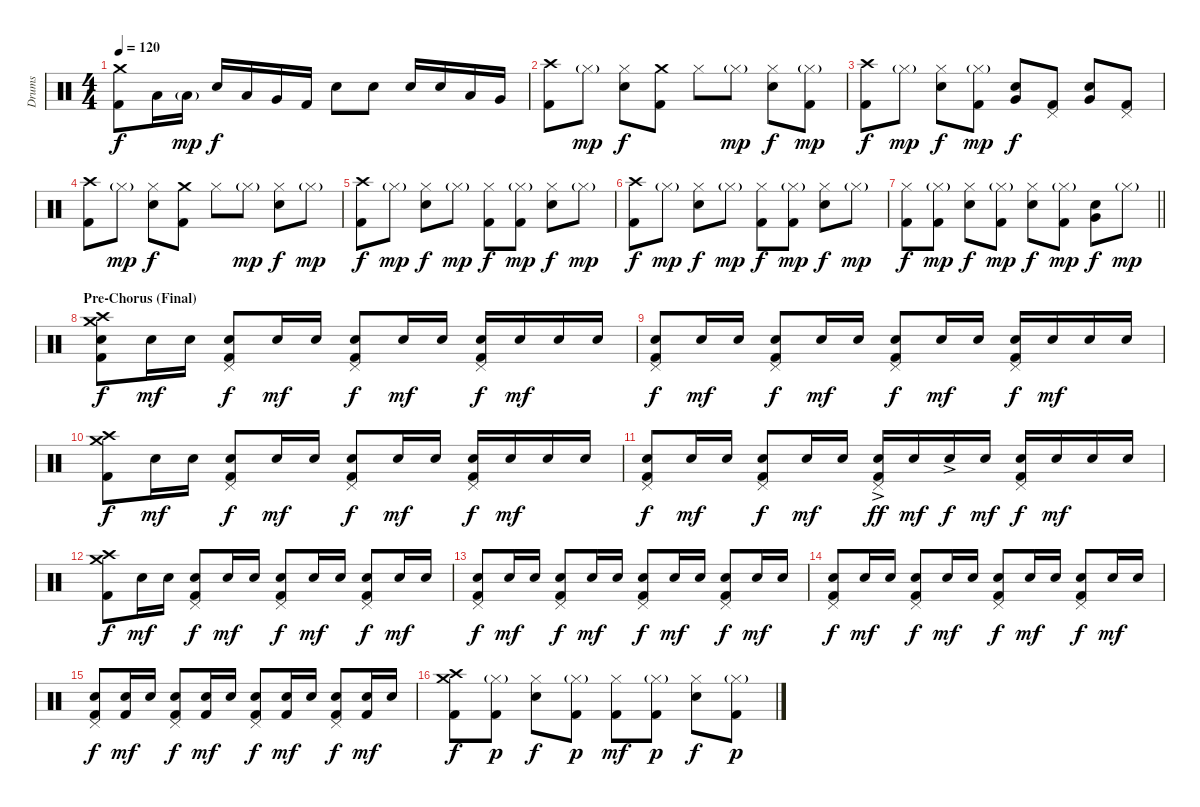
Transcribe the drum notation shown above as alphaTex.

\track ("Drums" "Drums") {instrument percussion}
\staff {score}
\articulation defaults
\ts (4 4)
\tempo 120
\clef neutral
\ks c
("Crash medium (hit)" "Kick (hit) 2").8{dy f} "Low Tom (hit)".16 "Low Tom (hit)"{g}.16{dy mp} "Electric Snare (hit)".16{dy f} "Low Tom (hit)".16 "Very Low Tom (hit)".16 "Kick (hit) 2".16 "Electric Snare (hit)".8 "Electric Snare (hit)".8 "Electric Snare (hit)".16 "Electric Snare (hit)".16 "Low Tom (hit)".16 "Very Low Tom (hit)".16 |
("Crash high (hit)" "Kick (hit) 2").8 "Hi-Hat (closed)"{g}.8{dy mp} ("Hi-Hat (closed)" "Electric Snare (hit)").8{dy f} ("Crash medium (hit)" "Kick (hit) 2").8 "Hi-Hat (closed)".8 "Hi-Hat (closed)"{g}.8{dy mp} ("Hi-Hat (closed)" "Electric Snare (hit)").8{dy f} ("Hi-Hat (closed)"{g} "Kick (hit) 2").8{dy mp} |
("Crash high (hit)" "Kick (hit) 2").8{dy f} "Hi-Hat (closed)"{g}.8{dy mp} ("Hi-Hat (closed)" "Electric Snare (hit)").8{dy f} ("Hi-Hat (closed)"{g} "Kick (hit) 2").8{dy mp} ("Very Low Tom (hit)" "Electric Snare (hit)").8{dy f} ("Pedal Hi-Hat (hit)" "Kick (hit) 2").8 ("Very Low Tom (hit)" "Electric Snare (hit)").8 ("Pedal Hi-Hat (hit)" "Kick (hit) 2").8 |
("Crash high (hit)" "Kick (hit) 2").8 "Hi-Hat (closed)"{g}.8{dy mp} ("Hi-Hat (closed)" "Electric Snare (hit)").8{dy f} ("Crash medium (hit)" "Kick (hit) 2").8 "Hi-Hat (closed)".8 "Hi-Hat (closed)"{g}.8{dy mp} ("Hi-Hat (closed)" "Electric Snare (hit)").8{dy f} "Hi-Hat (closed)"{g}.8{dy mp} |
("Crash high (hit)" "Kick (hit) 2").8{dy f} "Hi-Hat (closed)"{g}.8{dy mp} ("Hi-Hat (closed)" "Electric Snare (hit)").8{dy f} "Hi-Hat (closed)"{g}.8{dy mp} ("Hi-Hat (closed)" "Kick (hit) 2").8{dy f} ("Hi-Hat (closed)"{g} "Kick (hit) 2").8{dy mp} ("Hi-Hat (closed)" "Electric Snare (hit)").8{dy f} "Hi-Hat (closed)"{g}.8{dy mp} |
("Crash high (hit)" "Kick (hit) 2").8{dy f} "Hi-Hat (closed)"{g}.8{dy mp} ("Hi-Hat (closed)" "Electric Snare (hit)").8{dy f} "Hi-Hat (closed)"{g}.8{dy mp} ("Hi-Hat (closed)" "Kick (hit) 2").8{dy f} ("Hi-Hat (closed)"{g} "Kick (hit) 2").8{dy mp} ("Hi-Hat (closed)" "Electric Snare (hit)").8{dy f} "Hi-Hat (closed)"{g}.8{dy mp} |
\barLineRight lightlight
("Hi-Hat (closed)" "Kick (hit) 2").8{dy f} ("Hi-Hat (closed)"{g} "Kick (hit) 2").8{dy mp} ("Hi-Hat (closed)" "Electric Snare (hit)").8{dy f} ("Hi-Hat (closed)"{g} "Kick (hit) 2").8{dy mp} ("Hi-Hat (closed)" "Electric Snare (hit)").8{dy f} ("Hi-Hat (closed)"{g} "Kick (hit) 2").8{dy mp} ("Very Low Tom (hit)" "Electric Snare (hit)").8{dy f} "Hi-Hat (closed)"{g}.8{dy mp} |
\section ("" "Pre-Chorus (Final)")
("Crash high (hit)" "Crash medium (hit)" "Electric Snare (hit)" "Kick (hit) 2").8{dy f} "Electric Snare (hit)".16{dy mf} "Electric Snare (hit)".16 ("Pedal Hi-Hat (hit)" "Electric Snare (hit)" "Kick (hit) 2").8{dy f} "Electric Snare (hit)".16{dy mf} "Electric Snare (hit)".16 ("Pedal Hi-Hat (hit)" "Electric Snare (hit)" "Kick (hit) 2").8{dy f} "Electric Snare (hit)".16{dy mf} "Electric Snare (hit)".16 ("Pedal Hi-Hat (hit)" "Electric Snare (hit)" "Kick (hit) 2").16{dy f} "Electric Snare (hit)".16{dy mf} "Electric Snare (hit)".16 "Electric Snare (hit)".16 |
("Pedal Hi-Hat (hit)" "Electric Snare (hit)" "Kick (hit) 2").8{dy f} "Electric Snare (hit)".16{dy mf} "Electric Snare (hit)".16 ("Pedal Hi-Hat (hit)" "Electric Snare (hit)" "Kick (hit) 2").8{dy f} "Electric Snare (hit)".16{dy mf} "Electric Snare (hit)".16 ("Pedal Hi-Hat (hit)" "Electric Snare (hit)" "Kick (hit) 2").8{dy f} "Electric Snare (hit)".16{dy mf} "Electric Snare (hit)".16 ("Pedal Hi-Hat (hit)" "Electric Snare (hit)" "Kick (hit) 2").16{dy f} "Electric Snare (hit)".16{dy mf} "Electric Snare (hit)".16 "Electric Snare (hit)".16 |
("Crash high (hit)" "Crash medium (hit)" "Kick (hit) 2").8{dy f} "Electric Snare (hit)".16{dy mf} "Electric Snare (hit)".16 ("Pedal Hi-Hat (hit)" "Electric Snare (hit)" "Kick (hit) 2").8{dy f} "Electric Snare (hit)".16{dy mf} "Electric Snare (hit)".16 ("Pedal Hi-Hat (hit)" "Electric Snare (hit)" "Kick (hit) 2").8{dy f} "Electric Snare (hit)".16{dy mf} "Electric Snare (hit)".16 ("Pedal Hi-Hat (hit)" "Electric Snare (hit)" "Kick (hit) 2").16{dy f} "Electric Snare (hit)".16{dy mf} "Electric Snare (hit)".16 "Electric Snare (hit)".16 |
("Pedal Hi-Hat (hit)" "Electric Snare (hit)" "Kick (hit) 2").8{dy f} "Electric Snare (hit)".16{dy mf} "Electric Snare (hit)".16 ("Pedal Hi-Hat (hit)" "Electric Snare (hit)" "Kick (hit) 2").8{dy f} "Electric Snare (hit)".16{dy mf} "Electric Snare (hit)".16 ("Pedal Hi-Hat (hit)" "Electric Snare (hit)"{ac} "Kick (hit) 2").16{dy ff} "Electric Snare (hit)".16{dy mf} "Electric Snare (hit)"{ac}.16{dy f} "Electric Snare (hit)".16{dy mf} ("Pedal Hi-Hat (hit)" "Electric Snare (hit)" "Kick (hit) 2").16{dy f} "Electric Snare (hit)".16{dy mf} "Electric Snare (hit)".16 "Electric Snare (hit)".16 |
("Crash medium (hit)" "Crash high (hit)" "Kick (hit) 2").8{dy f} "Electric Snare (hit)".16{dy mf} "Electric Snare (hit)".16 ("Pedal Hi-Hat (hit)" "Electric Snare (hit)" "Kick (hit) 2").8{dy f} "Electric Snare (hit)".16{dy mf} "Electric Snare (hit)".16 ("Pedal Hi-Hat (hit)" "Electric Snare (hit)" "Kick (hit) 2").8{dy f} "Electric Snare (hit)".16{dy mf} "Electric Snare (hit)".16 ("Pedal Hi-Hat (hit)" "Electric Snare (hit)" "Kick (hit) 2").8{dy f} "Electric Snare (hit)".16{dy mf} "Electric Snare (hit)".16 |
("Pedal Hi-Hat (hit)" "Electric Snare (hit)" "Kick (hit) 2").8{dy f} "Electric Snare (hit)".16{dy mf} "Electric Snare (hit)".16 ("Pedal Hi-Hat (hit)" "Electric Snare (hit)" "Kick (hit) 2").8{dy f} "Electric Snare (hit)".16{dy mf} "Electric Snare (hit)".16 ("Pedal Hi-Hat (hit)" "Electric Snare (hit)" "Kick (hit) 2").8{dy f} "Electric Snare (hit)".16{dy mf} "Electric Snare (hit)".16 ("Pedal Hi-Hat (hit)" "Electric Snare (hit)" "Kick (hit) 2").8{dy f} "Electric Snare (hit)".16{dy mf} "Electric Snare (hit)".16 |
("Pedal Hi-Hat (hit)" "Electric Snare (hit)" "Kick (hit) 2").8{dy f} "Electric Snare (hit)".16{dy mf} "Electric Snare (hit)".16 ("Pedal Hi-Hat (hit)" "Electric Snare (hit)" "Kick (hit) 2").8{dy f} "Electric Snare (hit)".16{dy mf} "Electric Snare (hit)".16 ("Pedal Hi-Hat (hit)" "Electric Snare (hit)" "Kick (hit) 2").8{dy f} "Electric Snare (hit)".16{dy mf} "Electric Snare (hit)".16 ("Pedal Hi-Hat (hit)" "Electric Snare (hit)" "Kick (hit) 2").8{dy f} "Electric Snare (hit)".16{dy mf} "Electric Snare (hit)".16 |
("Pedal Hi-Hat (hit)" "Electric Snare (hit)" "Kick (hit) 2").8{dy f} ("Electric Snare (hit)" "Kick (hit) 2").16{dy mf} "Electric Snare (hit)".16 ("Pedal Hi-Hat (hit)" "Electric Snare (hit)" "Kick (hit) 2").8{dy f} ("Electric Snare (hit)" "Kick (hit) 2").16{dy mf} "Electric Snare (hit)".16 ("Pedal Hi-Hat (hit)" "Electric Snare (hit)" "Kick (hit) 2").8{dy f} ("Electric Snare (hit)" "Kick (hit) 2").16{dy mf} "Electric Snare (hit)".16 ("Pedal Hi-Hat (hit)" "Electric Snare (hit)" "Kick (hit) 2").8{dy f} ("Electric Snare (hit)" "Kick (hit) 2").16{dy mf} "Electric Snare (hit)".16 |
("Crash high (hit)" "Crash medium (hit)" "Kick (hit) 2").8{dy f} ("Hi-Hat (closed)"{g} "Kick (hit) 2").8{dy p} ("Hi-Hat (closed)" "Electric Snare (hit)").8{dy f} ("Hi-Hat (closed)"{g} "Kick (hit) 2").8{dy p} ("Hi-Hat (closed)" "Kick (hit) 2").8{dy mf} ("Hi-Hat (closed)"{g} "Kick (hit) 2").8{dy p} ("Hi-Hat (closed)" "Electric Snare (hit)").8{dy f} ("Hi-Hat (closed)"{g} "Kick (hit) 2").8{dy p}
